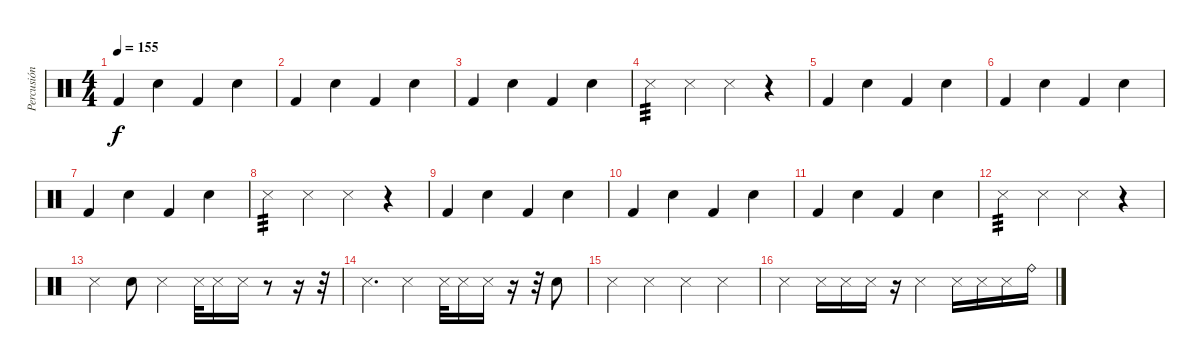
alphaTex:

\track ("Percusión" "Percusión") {instrument percussion}
\staff {score}
\articulation defaults
\ts (4 4)
\tempo 155
\clef neutral
\ks c "Kick (hit) 2".4{dy f} "Snare (hit) 2".4 "Kick (hit) 2".4 "Snare (hit) 2".4
|
"Kick (hit) 2".4 "Snare (hit) 2".4 "Kick (hit) 2".4 "Snare (hit) 2".4 |
"Kick (hit) 2".4 "Snare (hit) 2".4 "Kick (hit) 2".4 "Snare (hit) 2".4 |
"Snare (side stick) 3".4{tp 3} "Snare (side stick) 3".4 "Snare (side stick) 3".4 r.4 |
"Kick (hit) 2".4 "Snare (hit) 2".4 "Kick (hit) 2".4 "Snare (hit) 2".4 |
"Kick (hit) 2".4 "Snare (hit) 2".4 "Kick (hit) 2".4 "Snare (hit) 2".4 |
"Kick (hit) 2".4 "Snare (hit) 2".4 "Kick (hit) 2".4 "Snare (hit) 2".4 |
"Snare (side stick) 3".4{tp 3} "Snare (side stick) 3".4 "Snare (side stick) 3".4 r.4 |
"Kick (hit) 2".4 "Snare (hit) 2".4 "Kick (hit) 2".4 "Snare (hit) 2".4 |
"Kick (hit) 2".4 "Snare (hit) 2".4 "Kick (hit) 2".4 "Snare (hit) 2".4 |
"Kick (hit) 2".4 "Snare (hit) 2".4 "Kick (hit) 2".4 "Snare (hit) 2".4 |
"Snare (side stick) 3".4{tp 3} "Snare (side stick) 3".4 "Snare (side stick) 3".4 r.4 |
"Snare (side stick) 3".4 "Snare (hit) 2".8 "Snare (side stick) 3".4 "Snare (side stick) 3".32 "Snare (side stick) 3".16 "Snare (side stick) 3".16 r.8 r.16 r.32 |
"Snare (side stick) 3".4{d} "Snare (side stick) 3".4 "Snare (side stick) 3".32 "Snare (side stick) 3".16 "Snare (side stick) 3".16 r.16 r.32 "Snare (hit) 2".8 |
"Snare (side stick) 3".4 "Snare (side stick) 3".4 "Snare (side stick) 3".4 "Snare (side stick) 3".4 |
"Snare (side stick) 3".4 "Snare (side stick) 3".16 "Snare (side stick) 3".16 "Snare (side stick) 3".16 r.16 "Snare (side stick) 3".4 "Snare (side stick) 3".16 "Snare (side stick) 3".16 "Snare (side stick) 3".16 "Ride (bell)".16
